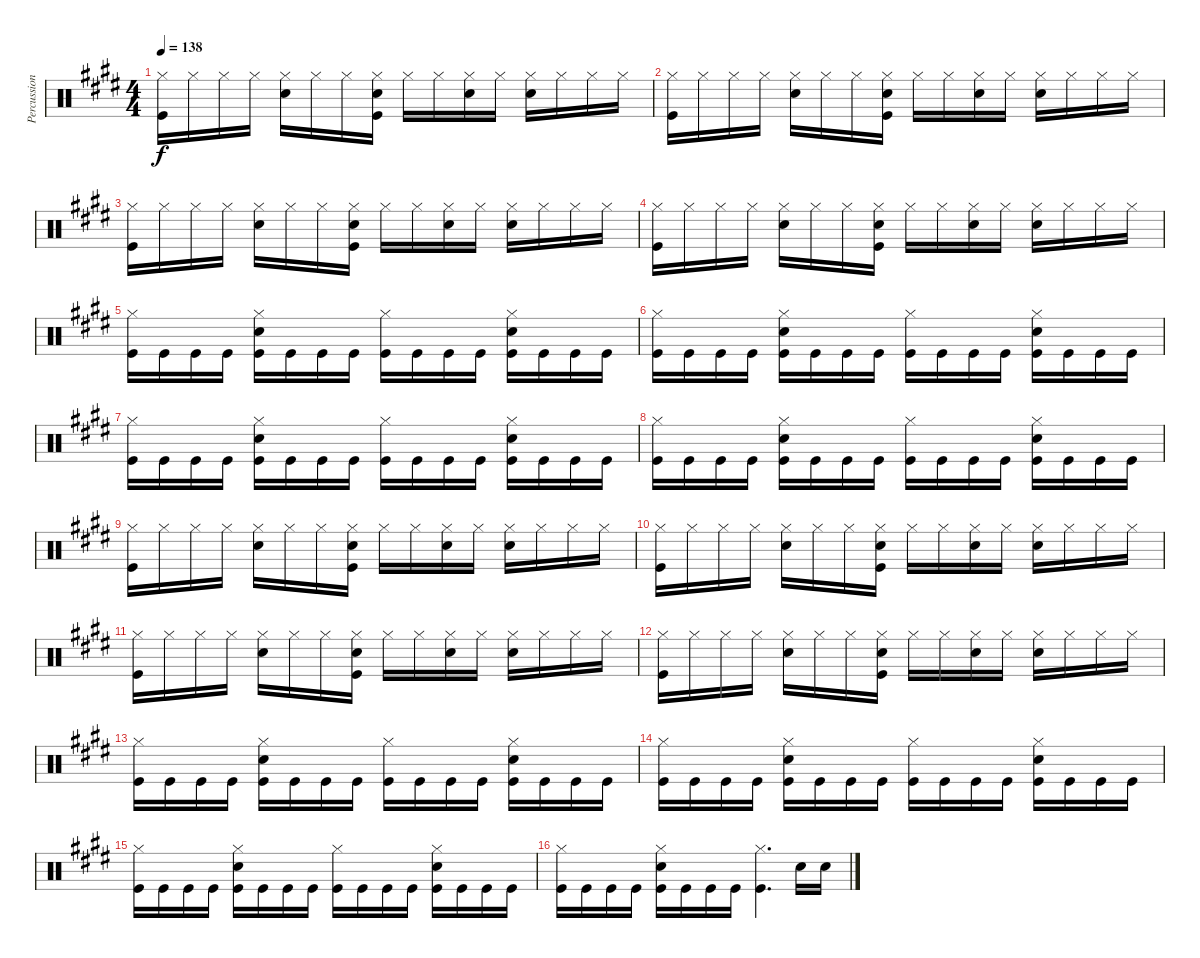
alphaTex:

\track ("Percussion" "Percussion") {instrument percussion}
\staff {score}
\articulation defaults
\ts (4 4)
\tempo 138
\clef neutral
\ks c#minor
("Hi-Hat (closed)" "Kick (hit)").16{dy f} "Hi-Hat (closed)".16 "Hi-Hat (closed)".16 "Hi-Hat (closed)".16 ("Hi-Hat (closed)" "Snare (hit) 2").16 "Hi-Hat (closed)".16 "Hi-Hat (closed)".16 ("Hi-Hat (closed)" "Snare (hit) 2" "Kick (hit)").16 "Hi-Hat (closed)".16 "Hi-Hat (closed)".16 ("Hi-Hat (closed)" "Snare (hit) 2").16 "Hi-Hat (closed)".16 ("Hi-Hat (closed)" "Snare (hit) 2").16 "Hi-Hat (closed)".16 "Hi-Hat (closed)".16 "Hi-Hat (closed)".16 |
("Hi-Hat (closed)" "Kick (hit)").16 "Hi-Hat (closed)".16 "Hi-Hat (closed)".16 "Hi-Hat (closed)".16 ("Hi-Hat (closed)" "Snare (hit) 2").16 "Hi-Hat (closed)".16 "Hi-Hat (closed)".16 ("Hi-Hat (closed)" "Snare (hit) 2" "Kick (hit)").16 "Hi-Hat (closed)".16 "Hi-Hat (closed)".16 ("Hi-Hat (closed)" "Snare (hit) 2").16 "Hi-Hat (closed)".16 ("Hi-Hat (closed)" "Snare (hit) 2").16 "Hi-Hat (closed)".16 "Hi-Hat (closed)".16 "Hi-Hat (closed)".16 |
("Hi-Hat (closed)" "Kick (hit)").16 "Hi-Hat (closed)".16 "Hi-Hat (closed)".16 "Hi-Hat (closed)".16 ("Hi-Hat (closed)" "Snare (hit) 2").16 "Hi-Hat (closed)".16 "Hi-Hat (closed)".16 ("Hi-Hat (closed)" "Snare (hit) 2" "Kick (hit)").16 "Hi-Hat (closed)".16 "Hi-Hat (closed)".16 ("Hi-Hat (closed)" "Snare (hit) 2").16 "Hi-Hat (closed)".16 ("Hi-Hat (closed)" "Snare (hit) 2").16 "Hi-Hat (closed)".16 "Hi-Hat (closed)".16 "Hi-Hat (closed)".16 |
("Hi-Hat (closed)" "Kick (hit)").16 "Hi-Hat (closed)".16 "Hi-Hat (closed)".16 "Hi-Hat (closed)".16 ("Hi-Hat (closed)" "Snare (hit) 2").16 "Hi-Hat (closed)".16 "Hi-Hat (closed)".16 ("Hi-Hat (closed)" "Snare (hit) 2" "Kick (hit)").16 "Hi-Hat (closed)".16 "Hi-Hat (closed)".16 ("Hi-Hat (closed)" "Snare (hit) 2").16 "Hi-Hat (closed)".16 ("Hi-Hat (closed)" "Snare (hit) 2").16 "Hi-Hat (closed)".16 "Hi-Hat (closed)".16 "Hi-Hat (closed)".16 |
("Hi-Hat (closed)" "Kick (hit)").16 "Kick (hit)".16 "Kick (hit)".16 "Kick (hit)".16 ("Hi-Hat (closed)" "Snare (hit) 2" "Kick (hit)").16 "Kick (hit)".16 "Kick (hit)".16 "Kick (hit)".16 ("Hi-Hat (closed)" "Kick (hit)").16 "Kick (hit)".16 "Kick (hit)".16 "Kick (hit)".16 ("Hi-Hat (closed)" "Snare (hit) 2" "Kick (hit)").16 "Kick (hit)".16 "Kick (hit)".16 "Kick (hit)".16 |
("Hi-Hat (closed)" "Kick (hit)").16 "Kick (hit)".16 "Kick (hit)".16 "Kick (hit)".16 ("Hi-Hat (closed)" "Snare (hit) 2" "Kick (hit)").16 "Kick (hit)".16 "Kick (hit)".16 "Kick (hit)".16 ("Hi-Hat (closed)" "Kick (hit)").16 "Kick (hit)".16 "Kick (hit)".16 "Kick (hit)".16 ("Hi-Hat (closed)" "Snare (hit) 2" "Kick (hit)").16 "Kick (hit)".16 "Kick (hit)".16 "Kick (hit)".16 |
("Hi-Hat (closed)" "Kick (hit)").16 "Kick (hit)".16 "Kick (hit)".16 "Kick (hit)".16 ("Hi-Hat (closed)" "Snare (hit) 2" "Kick (hit)").16 "Kick (hit)".16 "Kick (hit)".16 "Kick (hit)".16 ("Hi-Hat (closed)" "Kick (hit)").16 "Kick (hit)".16 "Kick (hit)".16 "Kick (hit)".16 ("Hi-Hat (closed)" "Snare (hit) 2" "Kick (hit)").16 "Kick (hit)".16 "Kick (hit)".16 "Kick (hit)".16 |
("Hi-Hat (closed)" "Kick (hit)").16 "Kick (hit)".16 "Kick (hit)".16 "Kick (hit)".16 ("Hi-Hat (closed)" "Snare (hit) 2" "Kick (hit)").16 "Kick (hit)".16 "Kick (hit)".16 "Kick (hit)".16 ("Hi-Hat (closed)" "Kick (hit)").16 "Kick (hit)".16 "Kick (hit)".16 "Kick (hit)".16 ("Hi-Hat (closed)" "Snare (hit) 2" "Kick (hit)").16 "Kick (hit)".16 "Kick (hit)".16 "Kick (hit)".16 |
("Hi-Hat (closed)" "Kick (hit)").16 "Hi-Hat (closed)".16 "Hi-Hat (closed)".16 "Hi-Hat (closed)".16 ("Hi-Hat (closed)" "Snare (hit) 2").16 "Hi-Hat (closed)".16 "Hi-Hat (closed)".16 ("Hi-Hat (closed)" "Snare (hit) 2" "Kick (hit)").16 "Hi-Hat (closed)".16 "Hi-Hat (closed)".16 ("Hi-Hat (closed)" "Snare (hit) 2").16 "Hi-Hat (closed)".16 ("Hi-Hat (closed)" "Snare (hit) 2").16 "Hi-Hat (closed)".16 "Hi-Hat (closed)".16 "Hi-Hat (closed)".16 |
("Hi-Hat (closed)" "Kick (hit)").16 "Hi-Hat (closed)".16 "Hi-Hat (closed)".16 "Hi-Hat (closed)".16 ("Hi-Hat (closed)" "Snare (hit) 2").16 "Hi-Hat (closed)".16 "Hi-Hat (closed)".16 ("Hi-Hat (closed)" "Snare (hit) 2" "Kick (hit)").16 "Hi-Hat (closed)".16 "Hi-Hat (closed)".16 ("Hi-Hat (closed)" "Snare (hit) 2").16 "Hi-Hat (closed)".16 ("Hi-Hat (closed)" "Snare (hit) 2").16 "Hi-Hat (closed)".16 "Hi-Hat (closed)".16 "Hi-Hat (closed)".16 |
("Hi-Hat (closed)" "Kick (hit)").16 "Hi-Hat (closed)".16 "Hi-Hat (closed)".16 "Hi-Hat (closed)".16 ("Hi-Hat (closed)" "Snare (hit) 2").16 "Hi-Hat (closed)".16 "Hi-Hat (closed)".16 ("Hi-Hat (closed)" "Snare (hit) 2" "Kick (hit)").16 "Hi-Hat (closed)".16 "Hi-Hat (closed)".16 ("Hi-Hat (closed)" "Snare (hit) 2").16 "Hi-Hat (closed)".16 ("Hi-Hat (closed)" "Snare (hit) 2").16 "Hi-Hat (closed)".16 "Hi-Hat (closed)".16 "Hi-Hat (closed)".16 |
("Hi-Hat (closed)" "Kick (hit)").16 "Hi-Hat (closed)".16 "Hi-Hat (closed)".16 "Hi-Hat (closed)".16 ("Hi-Hat (closed)" "Snare (hit) 2").16 "Hi-Hat (closed)".16 "Hi-Hat (closed)".16 ("Hi-Hat (closed)" "Snare (hit) 2" "Kick (hit)").16 "Hi-Hat (closed)".16 "Hi-Hat (closed)".16 ("Hi-Hat (closed)" "Snare (hit) 2").16 "Hi-Hat (closed)".16 ("Hi-Hat (closed)" "Snare (hit) 2").16 "Hi-Hat (closed)".16 "Hi-Hat (closed)".16 "Hi-Hat (closed)".16 |
("Hi-Hat (closed)" "Kick (hit)").16 "Kick (hit)".16 "Kick (hit)".16 "Kick (hit)".16 ("Hi-Hat (closed)" "Snare (hit) 2" "Kick (hit)").16 "Kick (hit)".16 "Kick (hit)".16 "Kick (hit)".16 ("Hi-Hat (closed)" "Kick (hit)").16 "Kick (hit)".16 "Kick (hit)".16 "Kick (hit)".16 ("Hi-Hat (closed)" "Snare (hit) 2" "Kick (hit)").16 "Kick (hit)".16 "Kick (hit)".16 "Kick (hit)".16 |
("Hi-Hat (closed)" "Kick (hit)").16 "Kick (hit)".16 "Kick (hit)".16 "Kick (hit)".16 ("Hi-Hat (closed)" "Snare (hit) 2" "Kick (hit)").16 "Kick (hit)".16 "Kick (hit)".16 "Kick (hit)".16 ("Hi-Hat (closed)" "Kick (hit)").16 "Kick (hit)".16 "Kick (hit)".16 "Kick (hit)".16 ("Hi-Hat (closed)" "Snare (hit) 2" "Kick (hit)").16 "Kick (hit)".16 "Kick (hit)".16 "Kick (hit)".16 |
("Hi-Hat (closed)" "Kick (hit)").16 "Kick (hit)".16 "Kick (hit)".16 "Kick (hit)".16 ("Hi-Hat (closed)" "Snare (hit) 2" "Kick (hit)").16 "Kick (hit)".16 "Kick (hit)".16 "Kick (hit)".16 ("Hi-Hat (closed)" "Kick (hit)").16 "Kick (hit)".16 "Kick (hit)".16 "Kick (hit)".16 ("Hi-Hat (closed)" "Snare (hit) 2" "Kick (hit)").16 "Kick (hit)".16 "Kick (hit)".16 "Kick (hit)".16 |
("Hi-Hat (closed)" "Kick (hit)").16 "Kick (hit)".16 "Kick (hit)".16 "Kick (hit)".16 ("Hi-Hat (closed)" "Snare (hit) 2" "Kick (hit)").16 "Kick (hit)".16 "Kick (hit)".16 "Kick (hit)".16 ("Hi-Hat (closed)" "Kick (hit)").4{d} "Snare (hit) 2".16 "Snare (hit) 2".16
